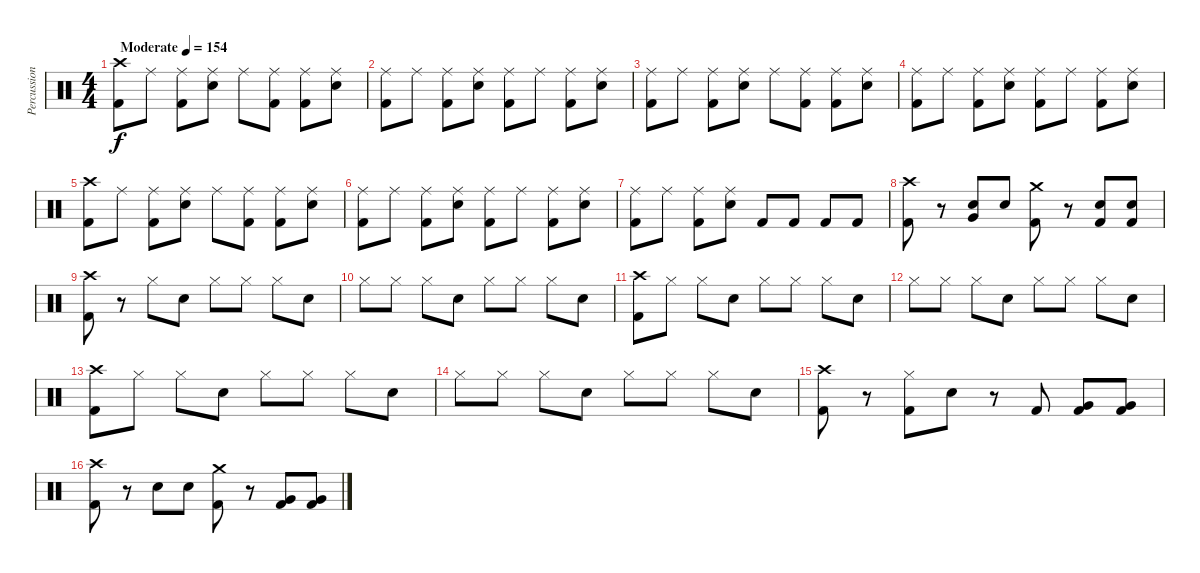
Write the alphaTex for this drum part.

\track ("Percussion" "Percussion") {instrument percussion}
\staff {score}
\articulation defaults
\ts (4 4)
\tempo (154 "Moderate")
\clef neutral
\ks c
("Crash high (hit)" "Kick (hit) 2").8{dy f} "Ride (middle)".8 ("Ride (middle)" "Kick (hit) 2").8 ("Ride (middle)" "Electric Snare (hit)").8 "Ride (middle)".8 ("Ride (middle)" "Kick (hit) 2").8 ("Ride (middle)" "Kick (hit) 2").8 ("Ride (middle)" "Electric Snare (hit)").8 |
("Ride (middle)" "Kick (hit) 2").8 "Ride (middle)".8 ("Ride (middle)" "Kick (hit) 2").8 ("Ride (middle)" "Electric Snare (hit)").8 ("Ride (middle)" "Kick (hit) 2").8 "Ride (middle)".8 ("Ride (middle)" "Kick (hit) 2").8 ("Ride (middle)" "Electric Snare (hit)").8 |
("Ride (middle)" "Kick (hit) 2").8 "Ride (middle)".8 ("Ride (middle)" "Kick (hit) 2").8 ("Ride (middle)" "Electric Snare (hit)").8 "Ride (middle)".8 ("Ride (middle)" "Kick (hit) 2").8 ("Ride (middle)" "Kick (hit) 2").8 ("Ride (middle)" "Electric Snare (hit)").8 |
("Ride (middle)" "Kick (hit) 2").8 "Ride (middle)".8 ("Ride (middle)" "Kick (hit) 2").8 ("Ride (middle)" "Electric Snare (hit)").8 ("Ride (middle)" "Kick (hit) 2").8 "Ride (middle)".8 ("Ride (middle)" "Kick (hit) 2").8 ("Ride (middle)" "Electric Snare (hit)").8 |
("Crash high (hit)" "Kick (hit) 2").8 "Ride (middle)".8 ("Ride (middle)" "Kick (hit) 2").8 ("Ride (middle)" "Electric Snare (hit)").8 "Ride (middle)".8 ("Ride (middle)" "Kick (hit) 2").8 ("Ride (middle)" "Kick (hit) 2").8 ("Ride (middle)" "Electric Snare (hit)").8 |
("Ride (middle)" "Kick (hit) 2").8 "Ride (middle)".8 ("Ride (middle)" "Kick (hit) 2").8 ("Ride (middle)" "Electric Snare (hit)").8 ("Ride (middle)" "Kick (hit) 2").8 "Ride (middle)".8 ("Ride (middle)" "Kick (hit) 2").8 ("Ride (middle)" "Electric Snare (hit)").8 |
("Ride (middle)" "Kick (hit) 2").8 "Ride (middle)".8 ("Ride (middle)" "Kick (hit) 2").8 ("Ride (middle)" "Electric Snare (hit)").8 "Kick (hit) 2".8 "Kick (hit) 2".8 "Kick (hit) 2".8 "Kick (hit) 2".8 |
("Crash high (hit)" "Kick (hit) 2").8 r.8 ("Electric Snare (hit)" "Very Low Tom (hit)").8 "Electric Snare (hit)".8 ("Crash medium (hit)" "Kick (hit) 2").8 r.8 ("Electric Snare (hit)" "Kick (hit) 2").8 ("Electric Snare (hit)" "Kick (hit) 2").8 |
("Crash high (hit)" "Kick (hit) 2").8 r.8 "Hi-Hat (closed)".8 "Electric Snare (hit)".8 "Hi-Hat (closed)".8 "Hi-Hat (closed)".8 "Hi-Hat (closed)".8 "Electric Snare (hit)".8 |
"Hi-Hat (closed)".8 "Hi-Hat (closed)".8 "Hi-Hat (closed)".8 "Electric Snare (hit)".8 "Hi-Hat (closed)".8 "Hi-Hat (closed)".8 "Hi-Hat (closed)".8 "Electric Snare (hit)".8 |
("Crash high (hit)" "Kick (hit) 2").8 "Hi-Hat (closed)".8 "Hi-Hat (closed)".8 "Electric Snare (hit)".8 "Hi-Hat (closed)".8 "Hi-Hat (closed)".8 "Hi-Hat (closed)".8 "Electric Snare (hit)".8 |
"Hi-Hat (closed)".8 "Hi-Hat (closed)".8 "Hi-Hat (closed)".8 "Electric Snare (hit)".8 "Hi-Hat (closed)".8 "Hi-Hat (closed)".8 "Hi-Hat (closed)".8 "Electric Snare (hit)".8 |
("Crash high (hit)" "Kick (hit) 2").8 "Hi-Hat (closed)".8 "Hi-Hat (closed)".8 "Electric Snare (hit)".8 "Hi-Hat (closed)".8 "Hi-Hat (closed)".8 "Hi-Hat (closed)".8 "Electric Snare (hit)".8 |
"Hi-Hat (closed)".8 "Hi-Hat (closed)".8 "Hi-Hat (closed)".8 "Electric Snare (hit)".8 "Hi-Hat (closed)".8 "Hi-Hat (closed)".8 "Hi-Hat (closed)".8 "Electric Snare (hit)".8 |
("Crash high (hit)" "Kick (hit) 2").8 r.8 ("Hi-Hat (closed)" "Kick (hit) 2").8 "Electric Snare (hit)".8 r.8 "Kick (hit) 2".8 ("Very Low Tom (hit)" "Kick (hit) 2").8 ("Very Low Tom (hit)" "Kick (hit) 2").8 |
("Crash high (hit)" "Kick (hit) 2").8 r.8 "Electric Snare (hit)".8 "Electric Snare (hit)".8 ("Crash medium (hit)" "Kick (hit) 2").8 r.8 ("Very Low Tom (hit)" "Kick (hit) 2").8 ("Very Low Tom (hit)" "Kick (hit) 2").8
